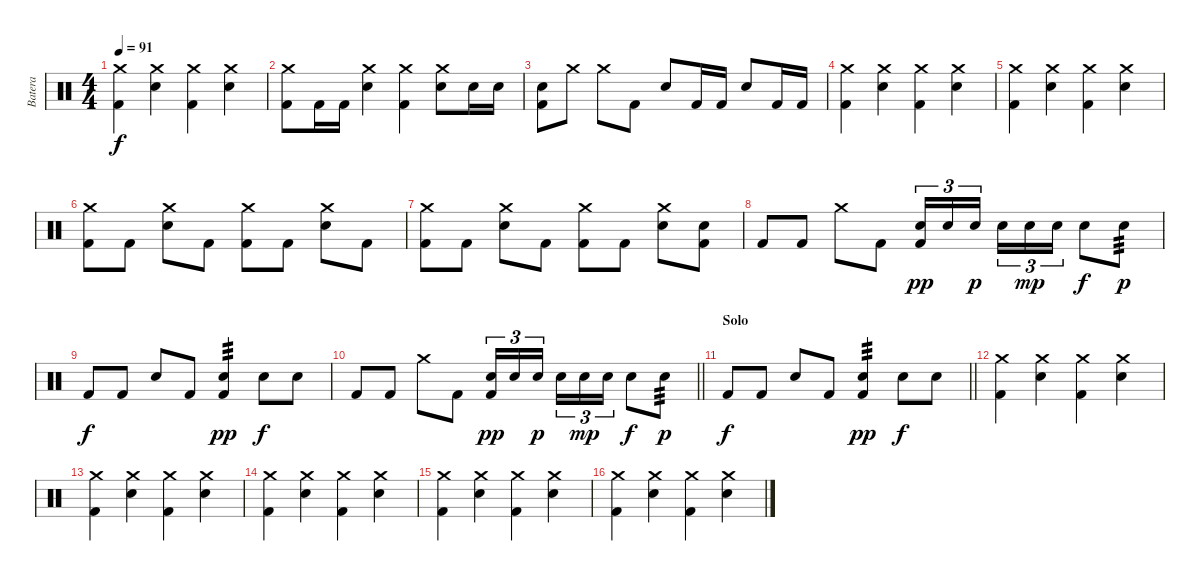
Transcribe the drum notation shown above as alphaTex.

\track ("Batera" "Batera") {instrument percussion}
\staff {score}
\articulation defaults
\ts (4 4)
\tempo 91
\clef neutral
\ks c
("Crash medium (hit)" "Kick (hit) 2").4{dy f} ("Crash medium (hit)" "Electric Snare (hit)").4 ("Crash medium (hit)" "Kick (hit) 2").4 ("Crash medium (hit)" "Electric Snare (hit)").4 |
("Crash medium (hit)" "Kick (hit) 2").8 "Kick (hit) 2".16 "Kick (hit) 2".16 ("Crash medium (hit)" "Electric Snare (hit)").4 ("Crash medium (hit)" "Kick (hit) 2").4 ("Crash medium (hit)" "Electric Snare (hit)").8 "Electric Snare (hit)".16 "Electric Snare (hit)".16 |
("Electric Snare (hit)" "Kick (hit) 2").8 "Crash medium (hit)".8 "Crash medium (hit)".8 "Kick (hit) 2".8 "Electric Snare (hit)".8 "Kick (hit) 2".16 "Kick (hit) 2".16 "Electric Snare (hit)".8 "Kick (hit) 2".16 "Kick (hit) 2".16 |
("Crash medium (hit)" "Kick (hit) 2").4 ("Crash medium (hit)" "Electric Snare (hit)").4 ("Crash medium (hit)" "Kick (hit) 2").4 ("Crash medium (hit)" "Electric Snare (hit)").4 |
("Crash medium (hit)" "Kick (hit) 2").4 ("Crash medium (hit)" "Electric Snare (hit)").4 ("Crash medium (hit)" "Kick (hit) 2").4 ("Crash medium (hit)" "Electric Snare (hit)").4 |
("Crash medium (hit)" "Kick (hit) 2").8 "Kick (hit) 2".8 ("Crash medium (hit)" "Electric Snare (hit)").8 "Kick (hit) 2".8 ("Crash medium (hit)" "Kick (hit) 2").8 "Kick (hit) 2".8 ("Crash medium (hit)" "Electric Snare (hit)").8 "Kick (hit) 2".8 |
("Crash medium (hit)" "Kick (hit) 2").8 "Kick (hit) 2".8 ("Crash medium (hit)" "Electric Snare (hit)").8 "Kick (hit) 2".8 ("Crash medium (hit)" "Kick (hit) 2").8 "Kick (hit) 2".8 ("Crash medium (hit)" "Electric Snare (hit)").8 ("Electric Snare (hit)" "Kick (hit) 2").8 |
"Kick (hit) 2".8 "Kick (hit) 2".8 "Crash medium (hit)".8 "Kick (hit) 2".8 ("Electric Snare (hit)" "Kick (hit) 2").16{tu (3 2) dy pp} "Electric Snare (hit)".16{tu (3 2)} "Electric Snare (hit)".16{tu (3 2) dy p beam splitsecondary} "Electric Snare (hit)".16{tu (3 2)} "Electric Snare (hit)".16{tu (3 2) dy mp} "Electric Snare (hit)".16{tu (3 2)} "Electric Snare (hit)".8{dy f} "Electric Snare (hit)".8{tp 3 dy p} |
"Kick (hit) 2".8{dy f} "Kick (hit) 2".8 "Electric Snare (hit)".8 "Kick (hit) 2".8 ("Electric Snare (hit)" "Kick (hit) 2").4{tp 3 dy pp} "Electric Snare (hit)".8{dy f} "Electric Snare (hit)".8 |
\barLineRight lightlight "Kick (hit) 2".8 "Kick (hit) 2".8 "Crash medium (hit)".8 "Kick (hit) 2".8
("Electric Snare (hit)" "Kick (hit) 2").16{tu (3 2) dy pp} "Electric Snare (hit)".16{tu (3 2)} "Electric Snare (hit)".16{tu (3 2) dy p beam splitsecondary} "Electric Snare (hit)".16{tu (3 2)} "Electric Snare (hit)".16{tu (3 2) dy mp} "Electric Snare (hit)".16{tu (3 2)} "Electric Snare (hit)".8{dy f} "Electric Snare (hit)".8{tp 3 dy p} |
\section ("" "Solo")
\barLineRight lightlight "Kick (hit) 2".8{dy f} "Kick (hit) 2".8 "Electric Snare (hit)".8 "Kick (hit) 2".8
("Electric Snare (hit)" "Kick (hit) 2").4{tp 3 dy pp} "Electric Snare (hit)".8{dy f} "Electric Snare (hit)".8 |
("Crash medium (hit)" "Kick (hit) 2").4 ("Crash medium (hit)" "Electric Snare (hit)").4 ("Crash medium (hit)" "Kick (hit) 2").4 ("Crash medium (hit)" "Electric Snare (hit)").4 |
("Crash medium (hit)" "Kick (hit) 2").4 ("Crash medium (hit)" "Electric Snare (hit)").4 ("Crash medium (hit)" "Kick (hit) 2").4 ("Crash medium (hit)" "Electric Snare (hit)").4 |
("Crash medium (hit)" "Kick (hit) 2").4 ("Crash medium (hit)" "Electric Snare (hit)").4 ("Crash medium (hit)" "Kick (hit) 2").4 ("Crash medium (hit)" "Electric Snare (hit)").4 |
("Crash medium (hit)" "Kick (hit) 2").4 ("Crash medium (hit)" "Electric Snare (hit)").4 ("Crash medium (hit)" "Kick (hit) 2").4 ("Crash medium (hit)" "Electric Snare (hit)").4 |
("Crash medium (hit)" "Kick (hit) 2").4 ("Crash medium (hit)" "Electric Snare (hit)").4 ("Crash medium (hit)" "Kick (hit) 2").4 ("Crash medium (hit)" "Electric Snare (hit)").4
